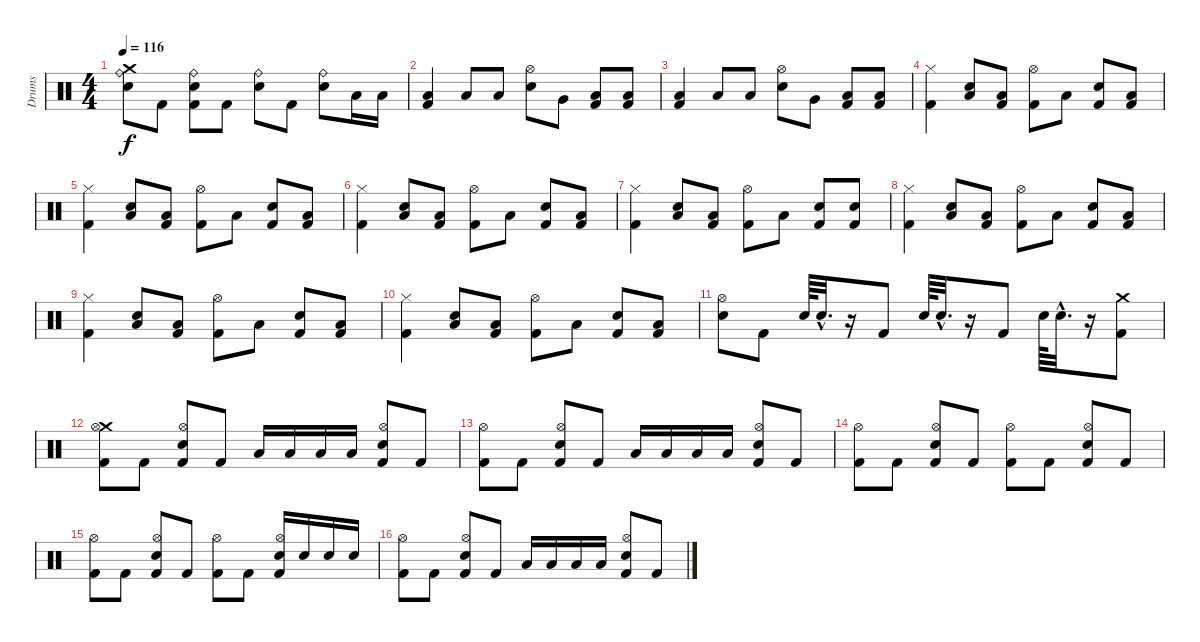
\track ("Drums" "Drums") {instrument percussion}
\staff {score}
\articulation defaults
\ts (4 4)
\tempo 116
\clef neutral
\ks c
("Crash medium (hit)" "Ride (bell)" "Snare (hit) 2").8{dy f} "Kick (hit) 2".8 ("Ride (bell)" "Snare (hit) 2" "Kick (hit) 2").8 "Kick (hit) 2".8 ("Ride (bell)" "Snare (hit) 2").8 "Kick (hit) 2".8 ("Ride (bell)" "Snare (hit) 2").8 "Low Floor Tom (hit)".16 "Low Floor Tom (hit)".16 |
("Low Floor Tom (hit)" "Kick (hit) 2").4 "Low Floor Tom (hit)".8 "Low Floor Tom (hit)".8 ("Hi-Hat (open)" "Electric Snare (hit)").8 "Very Low Tom (hit)".8 ("Low Floor Tom (hit)" "Kick (hit) 2").8 ("Low Floor Tom (hit)" "Kick (hit) 2").8 |
("Low Floor Tom (hit)" "Kick (hit) 2").4 "Low Floor Tom (hit)".8 "Low Floor Tom (hit)".8 ("Hi-Hat (open)" "Electric Snare (hit)").8 "Very Low Tom (hit)".8 ("Low Floor Tom (hit)" "Kick (hit) 2").8 ("Low Floor Tom (hit)" "Kick (hit) 2").8 |
("Hi-Hat (closed)" "Kick (hit) 2").4 ("Electric Snare (hit)" "Low Floor Tom (hit)").8 ("Low Floor Tom (hit)" "Kick (hit) 2").8 ("Hi-Hat (open)" "Kick (hit) 2").8 "Low Floor Tom (hit)".8 ("Electric Snare (hit)" "Kick (hit) 2").8 ("Low Floor Tom (hit)" "Kick (hit) 2").8 |
("Hi-Hat (closed)" "Kick (hit) 2").4 ("Electric Snare (hit)" "Low Floor Tom (hit)").8 ("Low Floor Tom (hit)" "Kick (hit) 2").8 ("Hi-Hat (open)" "Kick (hit) 2").8 "Low Floor Tom (hit)".8 ("Electric Snare (hit)" "Kick (hit) 2").8 ("Low Floor Tom (hit)" "Kick (hit) 2").8 |
("Hi-Hat (closed)" "Kick (hit) 2").4 ("Electric Snare (hit)" "Low Floor Tom (hit)").8 ("Low Floor Tom (hit)" "Kick (hit) 2").8 ("Hi-Hat (open)" "Kick (hit) 2").8 "Low Floor Tom (hit)".8 ("Electric Snare (hit)" "Kick (hit) 2").8 ("Low Floor Tom (hit)" "Kick (hit) 2").8 |
("Hi-Hat (closed)" "Kick (hit) 2").4 ("Electric Snare (hit)" "Low Floor Tom (hit)").8 ("Low Floor Tom (hit)" "Kick (hit) 2").8 ("Hi-Hat (open)" "Kick (hit) 2").8 "Low Floor Tom (hit)".8 ("Electric Snare (hit)" "Kick (hit) 2").8 ("Electric Snare (hit)" "Kick (hit) 2").8 |
("Hi-Hat (closed)" "Kick (hit) 2").4 ("Electric Snare (hit)" "Low Floor Tom (hit)").8 ("Low Floor Tom (hit)" "Kick (hit) 2").8 ("Hi-Hat (open)" "Kick (hit) 2").8 "Low Floor Tom (hit)".8 ("Electric Snare (hit)" "Kick (hit) 2").8 ("Low Floor Tom (hit)" "Kick (hit) 2").8 |
("Hi-Hat (closed)" "Kick (hit) 2").4 ("Electric Snare (hit)" "Low Floor Tom (hit)").8 ("Low Floor Tom (hit)" "Kick (hit) 2").8 ("Hi-Hat (open)" "Kick (hit) 2").8 "Low Floor Tom (hit)".8 ("Electric Snare (hit)" "Kick (hit) 2").8 ("Low Floor Tom (hit)" "Kick (hit) 2").8 |
("Hi-Hat (closed)" "Kick (hit) 2").4 ("Electric Snare (hit)" "Low Floor Tom (hit)").8 ("Low Floor Tom (hit)" "Kick (hit) 2").8 ("Hi-Hat (open)" "Kick (hit) 2").8 "Low Floor Tom (hit)".8 ("Electric Snare (hit)" "Kick (hit) 2").8 ("Low Floor Tom (hit)" "Kick (hit) 2").8 |
("Hi-Hat (open)" "Electric Snare (hit)").8 "Kick (hit) 2".8 "Snare (hit) 2".64 "Snare (hit) 2"{hac}.32{d} r.16 "Kick (hit) 2".8 "Snare (hit) 2".64 "Snare (hit) 2"{hac}.32{d} r.16 "Kick (hit) 2".8 "Snare (hit) 2".64 "Snare (hit) 2"{hac}.32{d} r.16 ("Crash medium (hit)" "Kick (hit) 2").8 |
("Crash medium (hit)" "Hi-Hat (open)" "Kick (hit) 2").8 "Kick (hit) 2".8 ("Hi-Hat (open)" "Electric Snare (hit)" "Kick (hit) 2").8 "Kick (hit) 2".8 "Low Floor Tom (hit)".16 "Low Floor Tom (hit)".16 "Low Floor Tom (hit)".16 "Low Floor Tom (hit)".16 ("Hi-Hat (open)" "Electric Snare (hit)" "Kick (hit) 2").8 "Kick (hit) 2".8 |
("Hi-Hat (open)" "Kick (hit) 2").8 "Kick (hit) 2".8 ("Hi-Hat (open)" "Electric Snare (hit)" "Kick (hit) 2").8 "Kick (hit) 2".8 "Low Floor Tom (hit)".16 "Low Floor Tom (hit)".16 "Low Floor Tom (hit)".16 "Low Floor Tom (hit)".16 ("Hi-Hat (open)" "Electric Snare (hit)" "Kick (hit) 2").8 "Kick (hit) 2".8 |
("Hi-Hat (open)" "Kick (hit) 2").8 "Kick (hit) 2".8 ("Hi-Hat (open)" "Electric Snare (hit)" "Kick (hit) 2").8 "Kick (hit) 2".8 ("Hi-Hat (open)" "Kick (hit) 2").8 "Kick (hit) 2".8 ("Hi-Hat (open)" "Electric Snare (hit)" "Kick (hit) 2").8 "Kick (hit) 2".8 |
("Hi-Hat (open)" "Kick (hit) 2").8 "Kick (hit) 2".8 ("Hi-Hat (open)" "Electric Snare (hit)" "Kick (hit) 2").8 "Kick (hit) 2".8 ("Hi-Hat (open)" "Kick (hit) 2").8 "Kick (hit) 2".8 ("Hi-Hat (open)" "Electric Snare (hit)" "Kick (hit) 2").16 "Electric Snare (hit)".16 "Electric Snare (hit)".16 "Electric Snare (hit)".16 |
("Hi-Hat (open)" "Kick (hit) 2").8 "Kick (hit) 2".8 ("Hi-Hat (open)" "Electric Snare (hit)" "Kick (hit) 2").8 "Kick (hit) 2".8 "Low Floor Tom (hit)".16 "Low Floor Tom (hit)".16 "Low Floor Tom (hit)".16 "Low Floor Tom (hit)".16 ("Hi-Hat (open)" "Electric Snare (hit)" "Kick (hit) 2").8 "Kick (hit) 2".8
